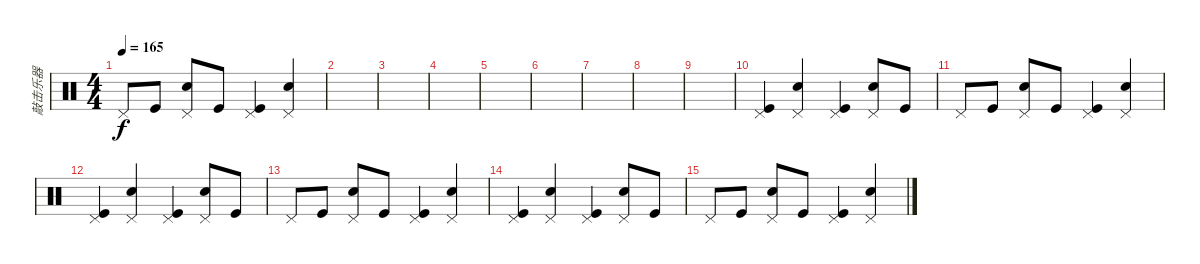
\track ("敲击乐器" "敲击乐器") {instrument percussion}
\staff {score}
\articulation defaults
\ts (4 4)
\tempo 165
\clef neutral
\ks c "Pedal Hi-Hat (hit)".8{dy f} "Kick (hit)".8
("Pedal Hi-Hat (hit)" "Snare (hit) 2").8 "Kick (hit)".8 ("Kick (hit)" "Pedal Hi-Hat (hit)").4 ("Snare (hit) 2" "Pedal Hi-Hat (hit)").4 |
|
|
|
|
|
|
|
|
("Pedal Hi-Hat (hit)" "Kick (hit)").4 ("Pedal Hi-Hat (hit)" "Snare (hit) 2").4 ("Pedal Hi-Hat (hit)" "Kick (hit)").4 ("Pedal Hi-Hat (hit)" "Snare (hit) 2").8 "Kick (hit)".8 |
"Pedal Hi-Hat (hit)".8 "Kick (hit)".8 ("Pedal Hi-Hat (hit)" "Snare (hit) 2").8 "Kick (hit)".8 ("Kick (hit)" "Pedal Hi-Hat (hit)").4 ("Snare (hit) 2" "Pedal Hi-Hat (hit)").4 |
("Pedal Hi-Hat (hit)" "Kick (hit)").4 ("Pedal Hi-Hat (hit)" "Snare (hit) 2").4 ("Pedal Hi-Hat (hit)" "Kick (hit)").4 ("Pedal Hi-Hat (hit)" "Snare (hit) 2").8 "Kick (hit)".8 |
"Pedal Hi-Hat (hit)".8 "Kick (hit)".8 ("Pedal Hi-Hat (hit)" "Snare (hit) 2").8 "Kick (hit)".8 ("Kick (hit)" "Pedal Hi-Hat (hit)").4 ("Snare (hit) 2" "Pedal Hi-Hat (hit)").4 |
("Pedal Hi-Hat (hit)" "Kick (hit)").4 ("Pedal Hi-Hat (hit)" "Snare (hit) 2").4 ("Pedal Hi-Hat (hit)" "Kick (hit)").4 ("Pedal Hi-Hat (hit)" "Snare (hit) 2").8 "Kick (hit)".8 |
"Pedal Hi-Hat (hit)".8 "Kick (hit)".8 ("Pedal Hi-Hat (hit)" "Snare (hit) 2").8 "Kick (hit)".8 ("Kick (hit)" "Pedal Hi-Hat (hit)").4 ("Snare (hit) 2" "Pedal Hi-Hat (hit)").4
